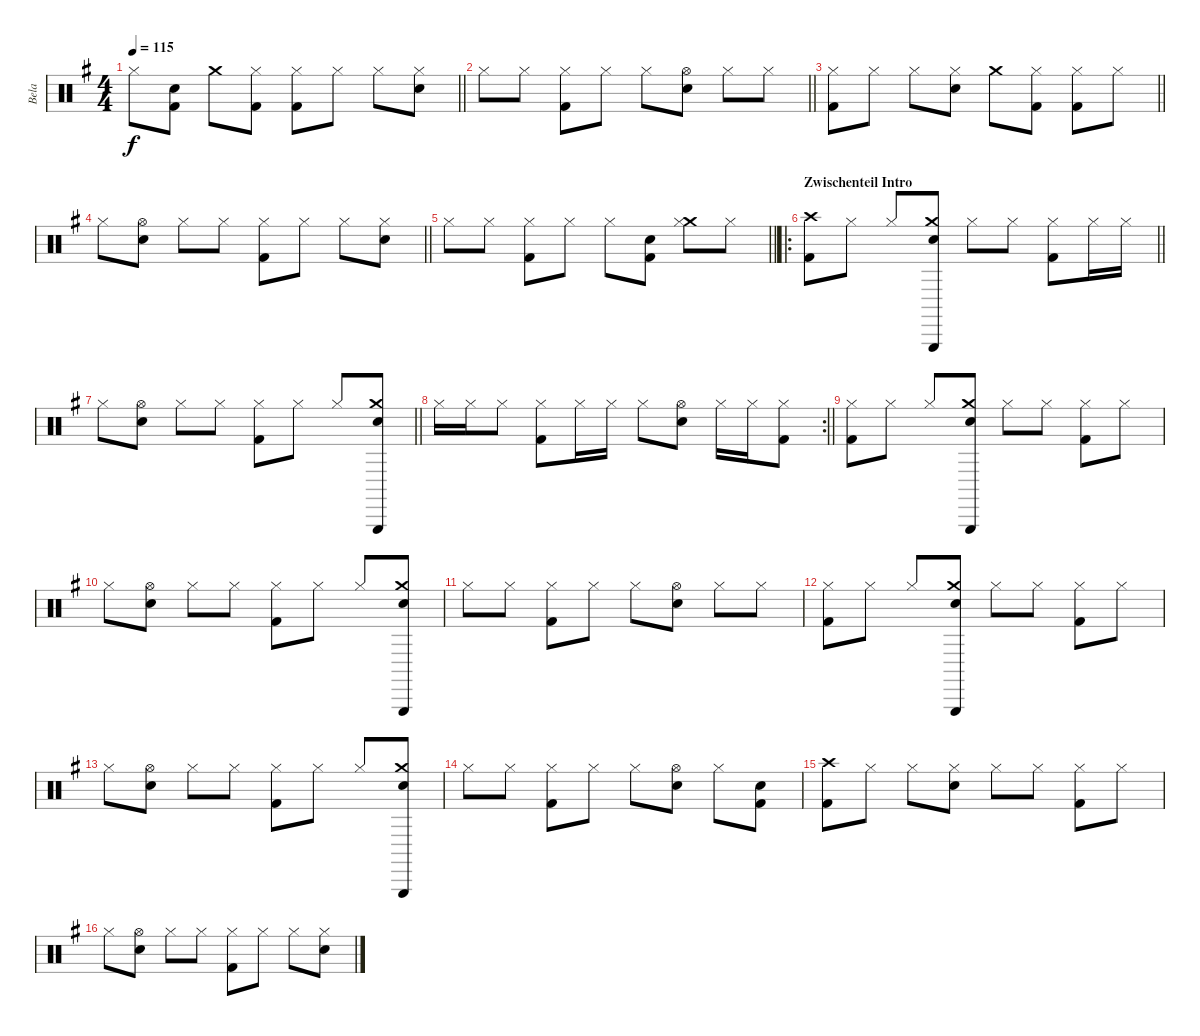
\track ("Bela" "Bela") {instrument percussion}
\staff {score}
\articulation defaults
\ts (4 4)
\tempo 115
\clef neutral
\barLineRight lightlight
\ks eminor "Hi-Hat (closed)".8{dy f}
("Electric Snare (hit)" "Kick (hit) 2").8 "Crash medium (hit)".8 ("Hi-Hat (closed)" "Kick (hit) 2").8 ("Hi-Hat (closed)" "Kick (hit) 2").8 "Hi-Hat (closed)".8 "Hi-Hat (closed)".8 ("Electric Snare (hit)" "Hi-Hat (closed)").8 |
\barLineRight lightlight "Hi-Hat (closed)".8 "Hi-Hat (closed)".8
("Hi-Hat (closed)" "Kick (hit) 2").8 "Hi-Hat (closed)".8 "Hi-Hat (closed)".8 ("Hi-Hat (open)" "Electric Snare (hit)").8 "Hi-Hat (closed)".8 "Hi-Hat (closed)".8 |
\barLineRight lightlight
("Hi-Hat (closed)" "Kick (hit) 2").8 "Hi-Hat (closed)".8 "Hi-Hat (closed)".8 ("Hi-Hat (closed)" "Electric Snare (hit)").8 "Crash medium (hit)".8 ("Hi-Hat (closed)" "Kick (hit) 2").8 ("Hi-Hat (closed)" "Kick (hit) 2").8 "Hi-Hat (closed)".8 |
\barLineRight lightlight "Hi-Hat (closed)".8
("Hi-Hat (open)" "Electric Snare (hit)").8 "Hi-Hat (closed)".8 "Hi-Hat (closed)".8 ("Hi-Hat (closed)" "Kick (hit) 2").8 "Hi-Hat (closed)".8 "Hi-Hat (closed)".8 ("Electric Snare (hit)" "Hi-Hat (closed)").8 |
\barLineRight lightlight "Hi-Hat (closed)".8 "Hi-Hat (closed)".8
("Hi-Hat (closed)" "Kick (hit) 2").8 "Hi-Hat (closed)".8 "Hi-Hat (closed)".8 ("Electric Snare (hit)" "Kick (hit) 2").8 ("Crash medium (hit)" "Hi-Hat (closed)").8 "Hi-Hat (closed)".8 |
\ro
\section ("" "Zwischenteil Intro")
\barLineRight lightlight
("Crash high (hit)" "Kick (hit) 2").8 "Hi-Hat (closed)".8 "Hi-Hat (closed)".8 ("Triangle (hit)" "Crash medium (hit)" "Electric Snare (hit)").8 "Hi-Hat (closed)".8 "Hi-Hat (closed)".8 ("Hi-Hat (closed)" "Kick (hit) 2").8 "Hi-Hat (closed)".16 "Hi-Hat (closed)".16 |
\barLineRight lightlight "Hi-Hat (closed)".8
("Hi-Hat (open)" "Electric Snare (hit)").8 "Hi-Hat (closed)".8 "Hi-Hat (closed)".8 ("Hi-Hat (closed)" "Kick (hit) 2").8 "Hi-Hat (closed)".8 "Hi-Hat (closed)".8 ("Triangle (hit)" "Crash medium (hit)" "Electric Snare (hit)").8 |
\rc 2
\barLineRight lightlight "Hi-Hat (closed)".16 "Hi-Hat (closed)".16 "Hi-Hat (closed)".8
("Hi-Hat (closed)" "Kick (hit) 2").8 "Hi-Hat (closed)".16 "Hi-Hat (closed)".16 "Hi-Hat (closed)".8 ("Hi-Hat (open)" "Electric Snare (hit)").8 "Hi-Hat (closed)".16 "Hi-Hat (closed)".16 ("Hi-Hat (closed)" "Kick (hit) 2").8 |
("Hi-Hat (closed)" "Kick (hit) 2").8 "Hi-Hat (closed)".8 "Hi-Hat (closed)".8 ("Triangle (hit)" "Crash medium (hit)" "Electric Snare (hit)").8 "Hi-Hat (closed)".8 "Hi-Hat (closed)".8 ("Hi-Hat (closed)" "Kick (hit) 2").8 "Hi-Hat (closed)".8 |
"Hi-Hat (closed)".8 ("Hi-Hat (open)" "Electric Snare (hit)").8 "Hi-Hat (closed)".8 "Hi-Hat (closed)".8 ("Hi-Hat (closed)" "Kick (hit) 2").8 "Hi-Hat (closed)".8 "Hi-Hat (closed)".8 ("Triangle (hit)" "Crash medium (hit)" "Electric Snare (hit)").8 |
"Hi-Hat (closed)".8 "Hi-Hat (closed)".8 ("Hi-Hat (closed)" "Kick (hit) 2").8 "Hi-Hat (closed)".8 "Hi-Hat (closed)".8 ("Hi-Hat (open)" "Electric Snare (hit)").8 "Hi-Hat (closed)".8 "Hi-Hat (closed)".8 |
("Hi-Hat (closed)" "Kick (hit) 2").8 "Hi-Hat (closed)".8 "Hi-Hat (closed)".8 ("Triangle (hit)" "Crash medium (hit)" "Electric Snare (hit)").8 "Hi-Hat (closed)".8 "Hi-Hat (closed)".8 ("Hi-Hat (closed)" "Kick (hit) 2").8 "Hi-Hat (closed)".8 |
"Hi-Hat (closed)".8 ("Hi-Hat (open)" "Electric Snare (hit)").8 "Hi-Hat (closed)".8 "Hi-Hat (closed)".8 ("Hi-Hat (closed)" "Kick (hit) 2").8 "Hi-Hat (closed)".8 "Hi-Hat (closed)".8 ("Triangle (hit)" "Crash medium (hit)" "Electric Snare (hit)").8 |
"Hi-Hat (closed)".8 "Hi-Hat (closed)".8 ("Hi-Hat (closed)" "Kick (hit) 2").8 "Hi-Hat (closed)".8 "Hi-Hat (closed)".8 ("Hi-Hat (open)" "Electric Snare (hit)").8 "Hi-Hat (closed)".8 ("Electric Snare (hit)" "Kick (hit) 2").8 |
("Crash high (hit)" "Kick (hit) 2").8 "Hi-Hat (closed)".8 "Hi-Hat (closed)".8 ("Hi-Hat (closed)" "Electric Snare (hit)").8 "Hi-Hat (closed)".8 "Hi-Hat (closed)".8 ("Hi-Hat (closed)" "Kick (hit) 2").8 "Hi-Hat (closed)".8 |
"Hi-Hat (closed)".8 ("Hi-Hat (open)" "Electric Snare (hit)").8 "Hi-Hat (closed)".8 "Hi-Hat (closed)".8 ("Hi-Hat (closed)" "Kick (hit) 2").8 "Hi-Hat (closed)".8 "Hi-Hat (closed)".8 ("Electric Snare (hit)" "Hi-Hat (closed)").8
